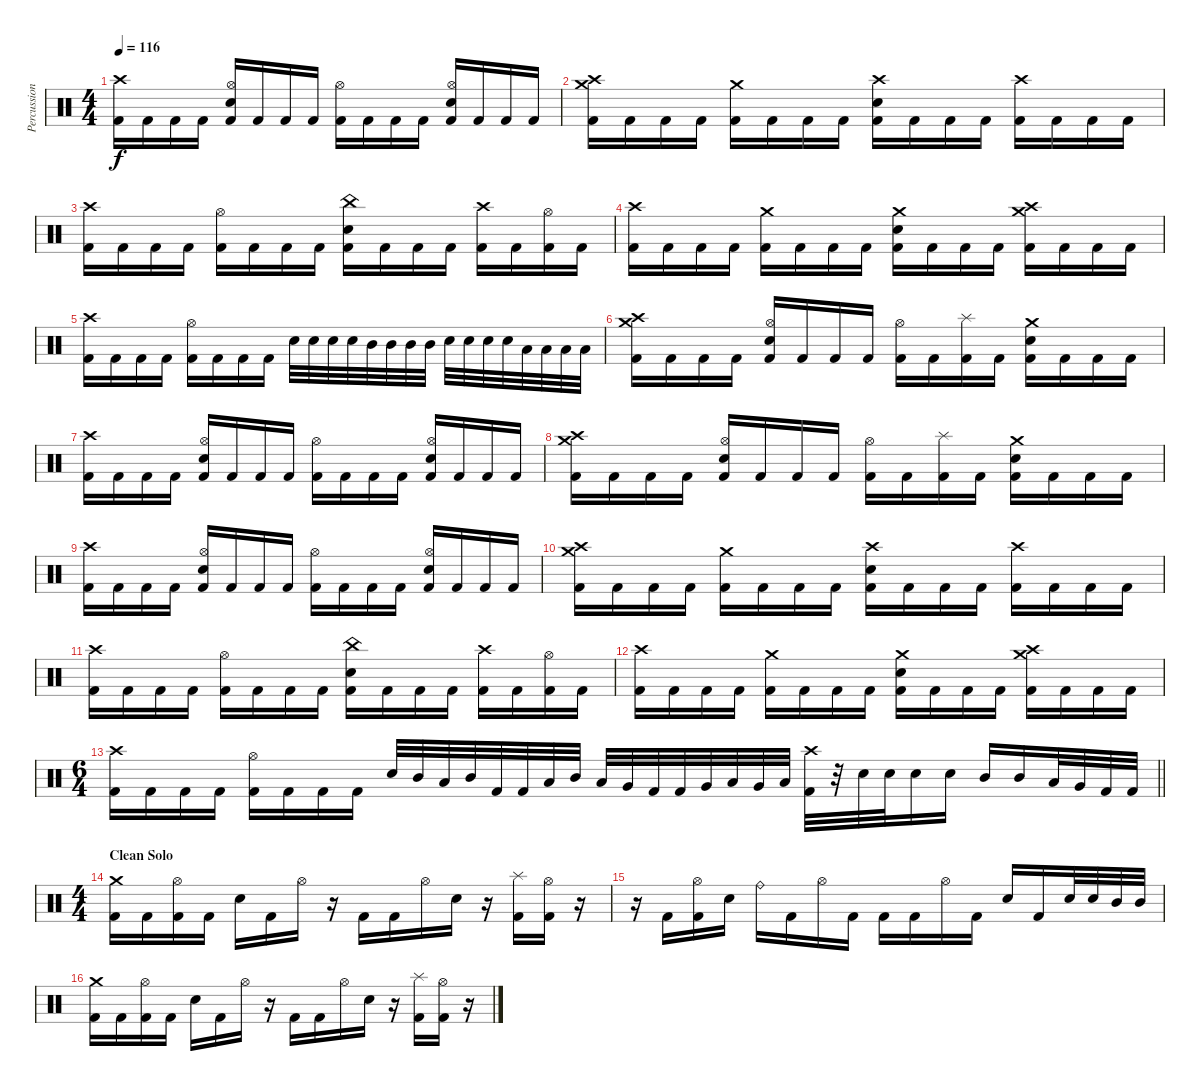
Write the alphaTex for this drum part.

\track ("Percussion" "Percussion") {instrument percussion}
\staff {score}
\articulation defaults
\ts (4 4)
\tempo 116
\clef neutral
\ks c
("Crash high (hit)" "Kick (hit) 2").16{dy f} "Kick (hit) 2".16 "Kick (hit) 2".16 "Kick (hit) 2".16 ("Hi-Hat (open)" "Electric Snare (hit)" "Kick (hit) 2").16 "Kick (hit) 2".16 "Kick (hit) 2".16 "Kick (hit) 2".16 ("Hi-Hat (open)" "Kick (hit) 2").16 "Kick (hit) 2".16 "Kick (hit) 2".16 "Kick (hit) 2".16 ("Hi-Hat (open)" "Electric Snare (hit)" "Kick (hit) 2").16 "Kick (hit) 2".16 "Kick (hit) 2".16 "Kick (hit) 2".16 |
("Crash high (hit)" "Crash medium (hit)" "Kick (hit) 2").16 "Kick (hit) 2".16 "Kick (hit) 2".16 "Kick (hit) 2".16 ("Crash medium (hit)" "Kick (hit) 2").16 "Kick (hit) 2".16 "Kick (hit) 2".16 "Kick (hit) 2".16 ("Crash high (hit)" "Electric Snare (hit)" "Kick (hit) 2").16 "Kick (hit) 2".16 "Kick (hit) 2".16 "Kick (hit) 2".16 ("Crash high (hit)" "Kick (hit) 2").16 "Kick (hit) 2".16 "Kick (hit) 2".16 "Kick (hit) 2".16 |
("Crash high (hit)" "Kick (hit) 2").16 "Kick (hit) 2".16 "Kick (hit) 2".16 "Kick (hit) 2".16 ("Hi-Hat (open)" "Kick (hit) 2").16 "Kick (hit) 2".16 "Kick (hit) 2".16 "Kick (hit) 2".16 ("China (hit)" "Electric Snare (hit)" "Kick (hit) 2").16 "Kick (hit) 2".16 "Kick (hit) 2".16 "Kick (hit) 2".16 ("Crash high (hit)" "Kick (hit) 2").16 "Kick (hit) 2".16 ("Hi-Hat (open)" "Kick (hit) 2").16 "Kick (hit) 2".16 |
("Crash high (hit)" "Kick (hit) 2").16 "Kick (hit) 2".16 "Kick (hit) 2".16 "Kick (hit) 2".16 ("Crash medium (hit)" "Kick (hit) 2").16 "Kick (hit) 2".16 "Kick (hit) 2".16 "Kick (hit) 2".16 ("Crash medium (hit)" "Electric Snare (hit)" "Kick (hit) 2").16 "Kick (hit) 2".16 "Kick (hit) 2".16 "Kick (hit) 2".16 ("Crash high (hit)" "Crash medium (hit)" "Kick (hit) 2").16 "Kick (hit) 2".16 "Kick (hit) 2".16 "Kick (hit) 2".16 |
("Crash high (hit)" "Kick (hit) 2").16 "Kick (hit) 2".16 "Kick (hit) 2".16 "Kick (hit) 2".16 ("Hi-Hat (open)" "Kick (hit) 2").16 "Kick (hit) 2".16 "Kick (hit) 2".16 "Kick (hit) 2".16 "Electric Snare (hit)".32 "Electric Snare (hit)".32 "Electric Snare (hit)".32 "Electric Snare (hit)".32 "Mid Tom (hit)".32 "Mid Tom (hit)".32 "Mid Tom (hit)".32 "Mid Tom (hit)".32 "Electric Snare (hit)".32 "Electric Snare (hit)".32 "Electric Snare (hit)".32 "Electric Snare (hit)".32 "Low Tom (hit)".32 "Low Tom (hit)".32 "Low Tom (hit)".32 "Low Tom (hit)".32 |
("Crash high (hit)" "Crash medium (hit)" "Kick (hit) 2").16 "Kick (hit) 2".16 "Kick (hit) 2".16 "Kick (hit) 2".16 ("Hi-Hat (open)" "Electric Snare (hit)" "Kick (hit) 2").16 "Kick (hit) 2".16 "Kick (hit) 2".16 "Kick (hit) 2".16 ("Hi-Hat (open)" "Kick (hit) 2").16 "Kick (hit) 2".16 ("Splash (hit)" "Kick (hit) 2").16 "Kick (hit) 2".16 ("Crash medium (hit)" "Electric Snare (hit)" "Kick (hit) 2").16 "Kick (hit) 2".16 "Kick (hit) 2".16 "Kick (hit) 2".16 |
("Crash high (hit)" "Kick (hit) 2").16 "Kick (hit) 2".16 "Kick (hit) 2".16 "Kick (hit) 2".16 ("Hi-Hat (open)" "Electric Snare (hit)" "Kick (hit) 2").16 "Kick (hit) 2".16 "Kick (hit) 2".16 "Kick (hit) 2".16 ("Hi-Hat (open)" "Kick (hit) 2").16 "Kick (hit) 2".16 "Kick (hit) 2".16 "Kick (hit) 2".16 ("Hi-Hat (open)" "Electric Snare (hit)" "Kick (hit) 2").16 "Kick (hit) 2".16 "Kick (hit) 2".16 "Kick (hit) 2".16 |
("Crash high (hit)" "Crash medium (hit)" "Kick (hit) 2").16 "Kick (hit) 2".16 "Kick (hit) 2".16 "Kick (hit) 2".16 ("Hi-Hat (open)" "Electric Snare (hit)" "Kick (hit) 2").16 "Kick (hit) 2".16 "Kick (hit) 2".16 "Kick (hit) 2".16 ("Hi-Hat (open)" "Kick (hit) 2").16 "Kick (hit) 2".16 ("Splash (hit)" "Kick (hit) 2").16 "Kick (hit) 2".16 ("Crash medium (hit)" "Electric Snare (hit)" "Kick (hit) 2").16 "Kick (hit) 2".16 "Kick (hit) 2".16 "Kick (hit) 2".16 |
("Crash high (hit)" "Kick (hit) 2").16 "Kick (hit) 2".16 "Kick (hit) 2".16 "Kick (hit) 2".16 ("Hi-Hat (open)" "Electric Snare (hit)" "Kick (hit) 2").16 "Kick (hit) 2".16 "Kick (hit) 2".16 "Kick (hit) 2".16 ("Hi-Hat (open)" "Kick (hit) 2").16 "Kick (hit) 2".16 "Kick (hit) 2".16 "Kick (hit) 2".16 ("Hi-Hat (open)" "Electric Snare (hit)" "Kick (hit) 2").16 "Kick (hit) 2".16 "Kick (hit) 2".16 "Kick (hit) 2".16 |
("Crash high (hit)" "Crash medium (hit)" "Kick (hit) 2").16 "Kick (hit) 2".16 "Kick (hit) 2".16 "Kick (hit) 2".16 ("Crash medium (hit)" "Kick (hit) 2").16 "Kick (hit) 2".16 "Kick (hit) 2".16 "Kick (hit) 2".16 ("Crash high (hit)" "Electric Snare (hit)" "Kick (hit) 2").16 "Kick (hit) 2".16 "Kick (hit) 2".16 "Kick (hit) 2".16 ("Crash high (hit)" "Kick (hit) 2").16 "Kick (hit) 2".16 "Kick (hit) 2".16 "Kick (hit) 2".16 |
("Crash high (hit)" "Kick (hit) 2").16 "Kick (hit) 2".16 "Kick (hit) 2".16 "Kick (hit) 2".16 ("Hi-Hat (open)" "Kick (hit) 2").16 "Kick (hit) 2".16 "Kick (hit) 2".16 "Kick (hit) 2".16 ("China (hit)" "Electric Snare (hit)" "Kick (hit) 2").16 "Kick (hit) 2".16 "Kick (hit) 2".16 "Kick (hit) 2".16 ("Crash high (hit)" "Kick (hit) 2").16 "Kick (hit) 2".16 ("Hi-Hat (open)" "Kick (hit) 2").16 "Kick (hit) 2".16 |
("Crash high (hit)" "Kick (hit) 2").16 "Kick (hit) 2".16 "Kick (hit) 2".16 "Kick (hit) 2".16 ("Crash medium (hit)" "Kick (hit) 2").16 "Kick (hit) 2".16 "Kick (hit) 2".16 "Kick (hit) 2".16 ("Crash medium (hit)" "Electric Snare (hit)" "Kick (hit) 2").16 "Kick (hit) 2".16 "Kick (hit) 2".16 "Kick (hit) 2".16 ("Crash high (hit)" "Crash medium (hit)" "Kick (hit) 2").16 "Kick (hit) 2".16 "Kick (hit) 2".16 "Kick (hit) 2".16 |
\ts (6 4)
\barLineRight lightlight
("Crash high (hit)" "Kick (hit) 2").16 "Kick (hit) 2".16 "Kick (hit) 2".16 "Kick (hit) 2".16 ("Hi-Hat (open)" "Kick (hit) 2").16 "Kick (hit) 2".16 "Kick (hit) 2".16 "Kick (hit) 2".16 "Electric Snare (hit)".32 "Mid Tom (hit)".32 "Low Tom (hit)".32 "Mid Tom (hit)".32 "Kick (hit) 2".32 "Kick (hit) 2".32 "Low Tom (hit)".32 "Mid Tom (hit)".32 "Low Tom (hit)".32 "Very Low Tom (hit)".32 "Kick (hit) 2".32 "Kick (hit) 2".32 "Very Low Tom (hit)".32 "Low Tom (hit)".32 "Very Low Tom (hit)".32 "Low Floor Tom (hit)".32 ("Crash high (hit)" "Kick (hit) 2").32 r.32 "Electric Snare (hit)".32 "Electric Snare (hit)".32 "Electric Snare (hit)".16 "Electric Snare (hit)".16 "Mid Tom (hit)".16 "Mid Tom (hit)".16 "Low Tom (hit)".32 "Very Low Tom (hit)".32 "Kick (hit) 2".32 "Kick (hit) 2".32 |
\ts (4 4)
\section ("" "Clean Solo ")
("Crash medium (hit)" "Kick (hit) 2").16 "Kick (hit) 2".16 ("Hi-Hat (open)" "Kick (hit) 2").16 "Kick (hit) 2".16 "Electric Snare (hit)".16 "Kick (hit) 2".16 "Hi-Hat (open)".16 r.16 "Kick (hit) 2".16 "Kick (hit) 2".16 "Hi-Hat (open)".16 "Electric Snare (hit)".16 r.16 ("Splash (hit)" "Kick (hit) 2").16 ("Hi-Hat (open)" "Kick (hit) 2").16 r.16 |
r.16 "Kick (hit) 2".16 ("Hi-Hat (open)" "Kick (hit) 2").16 "Electric Snare (hit)".16 "Ride (bell)".16 "Kick (hit) 2".16 "Hi-Hat (open)".16 "Kick (hit) 2".16 "Kick (hit) 2".16 "Kick (hit) 2".16 "Hi-Hat (open)".16 "Kick (hit) 2".16 "Electric Snare (hit)".16 "Kick (hit) 2".16 "Electric Snare (hit)".32 "Electric Snare (hit)".32 "Mid Tom (hit)".32 "Mid Tom (hit)".32 |
("Crash medium (hit)" "Kick (hit) 2").16 "Kick (hit) 2".16 ("Hi-Hat (open)" "Kick (hit) 2").16 "Kick (hit) 2".16 "Electric Snare (hit)".16 "Kick (hit) 2".16 "Hi-Hat (open)".16 r.16 "Kick (hit) 2".16 "Kick (hit) 2".16 "Hi-Hat (open)".16 "Electric Snare (hit)".16 r.16 ("Splash (hit)" "Kick (hit) 2").16 ("Hi-Hat (open)" "Kick (hit) 2").16 r.16
